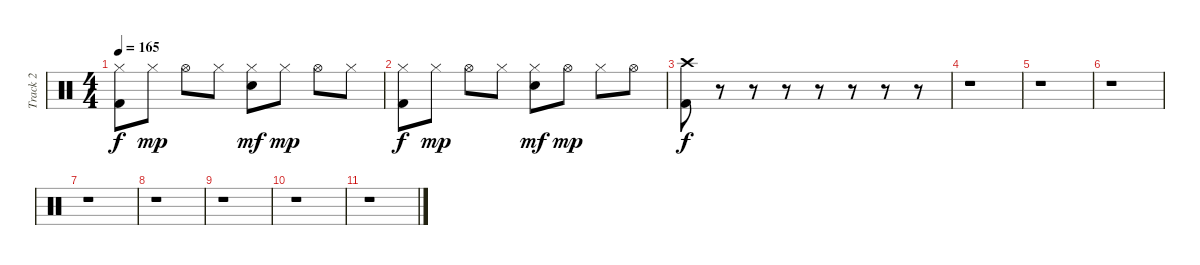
\track ("Track 2" "Track 2") {instrument percussion}
\staff {score}
\articulation defaults
\ts (4 4)
\tempo 165
\clef neutral
\ks c
("Hi-Hat (closed)" "Kick (hit) 2").8{dy f} "Hi-Hat (closed)".8{dy mp} "Hi-Hat (open)".8 "Hi-Hat (closed)".8 ("Hi-Hat (closed)" "Electric Snare (hit)").8{dy mf} "Hi-Hat (closed)".8{dy mp} "Hi-Hat (open)".8 "Hi-Hat (closed)".8 |
("Hi-Hat (closed)" "Kick (hit) 2").8{dy f} "Hi-Hat (closed)".8{dy mp} "Hi-Hat (open)".8 "Hi-Hat (closed)".8 ("Hi-Hat (closed)" "Electric Snare (hit)").8{dy mf} "Hi-Hat (open)".8{dy mp} "Hi-Hat (closed)".8 "Hi-Hat (open)".8 |
("Crash high (hit)" "Kick (hit) 2").8{dy f} r.8 r.8 r.8 r.8 r.8 r.8 r.8 |
r.1 |
r.1 |
r.1 |
r.1 |
r.1 |
r.1 |
r.1 |
r.1
